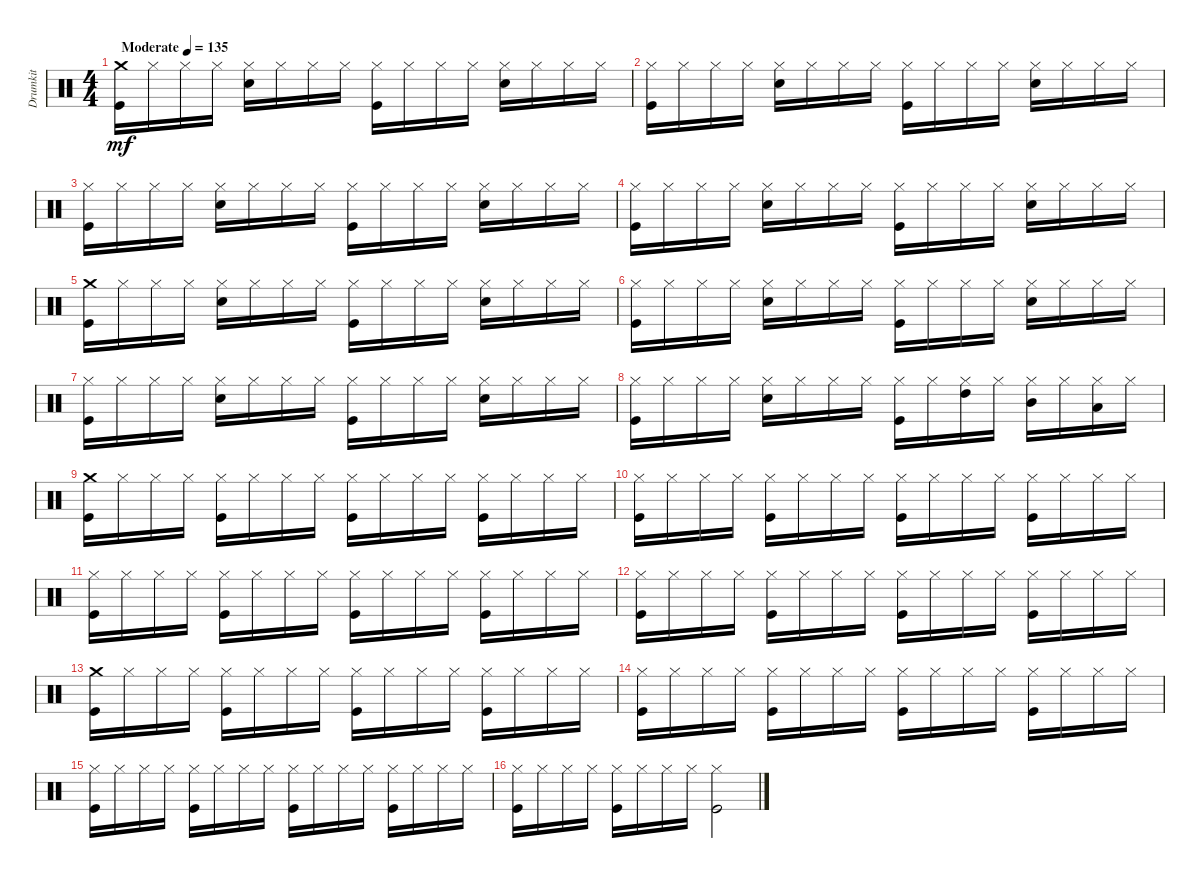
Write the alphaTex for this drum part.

\track ("Drumkit" "Drumkit") {instrument percussion}
\staff {score}
\articulation defaults
\ts (4 4)
\tempo (135 "Moderate")
\clef neutral
\ks c
("Crash medium (hit)" "Kick (hit)").16{dy mf} "Hi-Hat (closed)".16 "Hi-Hat (closed)".16 "Hi-Hat (closed)".16 ("Hi-Hat (closed)" "Snare (hit) 2").16 "Hi-Hat (closed)".16 "Hi-Hat (closed)".16 "Hi-Hat (closed)".16 ("Hi-Hat (closed)" "Kick (hit)").16 "Hi-Hat (closed)".16 "Hi-Hat (closed)".16 "Hi-Hat (closed)".16 ("Hi-Hat (closed)" "Snare (hit) 2").16 "Hi-Hat (closed)".16 "Hi-Hat (closed)".16 "Hi-Hat (closed)".16 |
("Hi-Hat (closed)" "Kick (hit)").16 "Hi-Hat (closed)".16 "Hi-Hat (closed)".16 "Hi-Hat (closed)".16 ("Hi-Hat (closed)" "Snare (hit) 2").16 "Hi-Hat (closed)".16 "Hi-Hat (closed)".16 "Hi-Hat (closed)".16 ("Hi-Hat (closed)" "Kick (hit)").16 "Hi-Hat (closed)".16 "Hi-Hat (closed)".16 "Hi-Hat (closed)".16 ("Hi-Hat (closed)" "Snare (hit) 2").16 "Hi-Hat (closed)".16 "Hi-Hat (closed)".16 "Hi-Hat (closed)".16 |
("Hi-Hat (closed)" "Kick (hit)").16 "Hi-Hat (closed)".16 "Hi-Hat (closed)".16 "Hi-Hat (closed)".16 ("Hi-Hat (closed)" "Snare (hit) 2").16 "Hi-Hat (closed)".16 "Hi-Hat (closed)".16 "Hi-Hat (closed)".16 ("Hi-Hat (closed)" "Kick (hit)").16 "Hi-Hat (closed)".16 "Hi-Hat (closed)".16 "Hi-Hat (closed)".16 ("Hi-Hat (closed)" "Snare (hit) 2").16 "Hi-Hat (closed)".16 "Hi-Hat (closed)".16 "Hi-Hat (closed)".16 |
("Hi-Hat (closed)" "Kick (hit)").16 "Hi-Hat (closed)".16 "Hi-Hat (closed)".16 "Hi-Hat (closed)".16 ("Hi-Hat (closed)" "Snare (hit) 2").16 "Hi-Hat (closed)".16 "Hi-Hat (closed)".16 "Hi-Hat (closed)".16 ("Hi-Hat (closed)" "Kick (hit)").16 "Hi-Hat (closed)".16 "Hi-Hat (closed)".16 "Hi-Hat (closed)".16 ("Hi-Hat (closed)" "Snare (hit) 2").16 "Hi-Hat (closed)".16 "Hi-Hat (closed)".16 "Hi-Hat (closed)".16 |
("Crash medium (hit)" "Kick (hit)").16 "Hi-Hat (closed)".16 "Hi-Hat (closed)".16 "Hi-Hat (closed)".16 ("Hi-Hat (closed)" "Snare (hit) 2").16 "Hi-Hat (closed)".16 "Hi-Hat (closed)".16 "Hi-Hat (closed)".16 ("Hi-Hat (closed)" "Kick (hit)").16 "Hi-Hat (closed)".16 "Hi-Hat (closed)".16 "Hi-Hat (closed)".16 ("Hi-Hat (closed)" "Snare (hit) 2").16 "Hi-Hat (closed)".16 "Hi-Hat (closed)".16 "Hi-Hat (closed)".16 |
("Hi-Hat (closed)" "Kick (hit)").16 "Hi-Hat (closed)".16 "Hi-Hat (closed)".16 "Hi-Hat (closed)".16 ("Hi-Hat (closed)" "Snare (hit) 2").16 "Hi-Hat (closed)".16 "Hi-Hat (closed)".16 "Hi-Hat (closed)".16 ("Hi-Hat (closed)" "Kick (hit)").16 "Hi-Hat (closed)".16 "Hi-Hat (closed)".16 "Hi-Hat (closed)".16 ("Hi-Hat (closed)" "Snare (hit) 2").16 "Hi-Hat (closed)".16 "Hi-Hat (closed)".16 "Hi-Hat (closed)".16 |
("Hi-Hat (closed)" "Kick (hit)").16 "Hi-Hat (closed)".16 "Hi-Hat (closed)".16 "Hi-Hat (closed)".16 ("Hi-Hat (closed)" "Snare (hit) 2").16 "Hi-Hat (closed)".16 "Hi-Hat (closed)".16 "Hi-Hat (closed)".16 ("Hi-Hat (closed)" "Kick (hit)").16 "Hi-Hat (closed)".16 "Hi-Hat (closed)".16 "Hi-Hat (closed)".16 ("Hi-Hat (closed)" "Snare (hit) 2").16 "Hi-Hat (closed)".16 "Hi-Hat (closed)".16 "Hi-Hat (closed)".16 |
("Hi-Hat (closed)" "Kick (hit)").16 "Hi-Hat (closed)".16 "Hi-Hat (closed)".16 "Hi-Hat (closed)".16 ("Hi-Hat (closed)" "Snare (hit) 2").16 "Hi-Hat (closed)".16 "Hi-Hat (closed)".16 "Hi-Hat (closed)".16 ("Hi-Hat (closed)" "Kick (hit)").16 "Hi-Hat (closed)".16 ("Hi-Hat (closed)" "High Tom (hit)").16 "Hi-Hat (closed)".16 ("Hi-Hat (closed)" "Mid Tom (hit)").16 "Hi-Hat (closed)".16 ("Hi-Hat (closed)" "Low Tom (hit)").16 "Hi-Hat (closed)".16 |
("Crash medium (hit)" "Kick (hit)").16 "Hi-Hat (closed)".16 "Hi-Hat (closed)".16 "Hi-Hat (closed)".16 ("Hi-Hat (closed)" "Kick (hit)").16 "Hi-Hat (closed)".16 "Hi-Hat (closed)".16 "Hi-Hat (closed)".16 ("Hi-Hat (closed)" "Kick (hit)").16 "Hi-Hat (closed)".16 "Hi-Hat (closed)".16 "Hi-Hat (closed)".16 ("Hi-Hat (closed)" "Kick (hit)").16 "Hi-Hat (closed)".16 "Hi-Hat (closed)".16 "Hi-Hat (closed)".16 |
("Hi-Hat (closed)" "Kick (hit)").16 "Hi-Hat (closed)".16 "Hi-Hat (closed)".16 "Hi-Hat (closed)".16 ("Hi-Hat (closed)" "Kick (hit)").16 "Hi-Hat (closed)".16 "Hi-Hat (closed)".16 "Hi-Hat (closed)".16 ("Hi-Hat (closed)" "Kick (hit)").16 "Hi-Hat (closed)".16 "Hi-Hat (closed)".16 "Hi-Hat (closed)".16 ("Hi-Hat (closed)" "Kick (hit)").16 "Hi-Hat (closed)".16 "Hi-Hat (closed)".16 "Hi-Hat (closed)".16 |
("Hi-Hat (closed)" "Kick (hit)").16 "Hi-Hat (closed)".16 "Hi-Hat (closed)".16 "Hi-Hat (closed)".16 ("Hi-Hat (closed)" "Kick (hit)").16 "Hi-Hat (closed)".16 "Hi-Hat (closed)".16 "Hi-Hat (closed)".16 ("Hi-Hat (closed)" "Kick (hit)").16 "Hi-Hat (closed)".16 "Hi-Hat (closed)".16 "Hi-Hat (closed)".16 ("Hi-Hat (closed)" "Kick (hit)").16 "Hi-Hat (closed)".16 "Hi-Hat (closed)".16 "Hi-Hat (closed)".16 |
("Hi-Hat (closed)" "Kick (hit)").16 "Hi-Hat (closed)".16 "Hi-Hat (closed)".16 "Hi-Hat (closed)".16 ("Hi-Hat (closed)" "Kick (hit)").16 "Hi-Hat (closed)".16 "Hi-Hat (closed)".16 "Hi-Hat (closed)".16 ("Hi-Hat (closed)" "Kick (hit)").16 "Hi-Hat (closed)".16 "Hi-Hat (closed)".16 "Hi-Hat (closed)".16 ("Hi-Hat (closed)" "Kick (hit)").16 "Hi-Hat (closed)".16 "Hi-Hat (closed)".16 "Hi-Hat (closed)".16 |
("Crash medium (hit)" "Kick (hit)").16 "Hi-Hat (closed)".16 "Hi-Hat (closed)".16 "Hi-Hat (closed)".16 ("Hi-Hat (closed)" "Kick (hit)").16 "Hi-Hat (closed)".16 "Hi-Hat (closed)".16 "Hi-Hat (closed)".16 ("Hi-Hat (closed)" "Kick (hit)").16 "Hi-Hat (closed)".16 "Hi-Hat (closed)".16 "Hi-Hat (closed)".16 ("Hi-Hat (closed)" "Kick (hit)").16 "Hi-Hat (closed)".16 "Hi-Hat (closed)".16 "Hi-Hat (closed)".16 |
("Hi-Hat (closed)" "Kick (hit)").16 "Hi-Hat (closed)".16 "Hi-Hat (closed)".16 "Hi-Hat (closed)".16 ("Hi-Hat (closed)" "Kick (hit)").16 "Hi-Hat (closed)".16 "Hi-Hat (closed)".16 "Hi-Hat (closed)".16 ("Hi-Hat (closed)" "Kick (hit)").16 "Hi-Hat (closed)".16 "Hi-Hat (closed)".16 "Hi-Hat (closed)".16 ("Hi-Hat (closed)" "Kick (hit)").16 "Hi-Hat (closed)".16 "Hi-Hat (closed)".16 "Hi-Hat (closed)".16 |
("Hi-Hat (closed)" "Kick (hit)").16 "Hi-Hat (closed)".16 "Hi-Hat (closed)".16 "Hi-Hat (closed)".16 ("Hi-Hat (closed)" "Kick (hit)").16 "Hi-Hat (closed)".16 "Hi-Hat (closed)".16 "Hi-Hat (closed)".16 ("Hi-Hat (closed)" "Kick (hit)").16 "Hi-Hat (closed)".16 "Hi-Hat (closed)".16 "Hi-Hat (closed)".16 ("Hi-Hat (closed)" "Kick (hit)").16 "Hi-Hat (closed)".16 "Hi-Hat (closed)".16 "Hi-Hat (closed)".16 |
("Hi-Hat (closed)" "Kick (hit)").16 "Hi-Hat (closed)".16 "Hi-Hat (closed)".16 "Hi-Hat (closed)".16 ("Hi-Hat (closed)" "Kick (hit)").16 "Hi-Hat (closed)".16 "Hi-Hat (closed)".16 "Hi-Hat (closed)".16 ("Hi-Hat (closed)" "Kick (hit)").2
